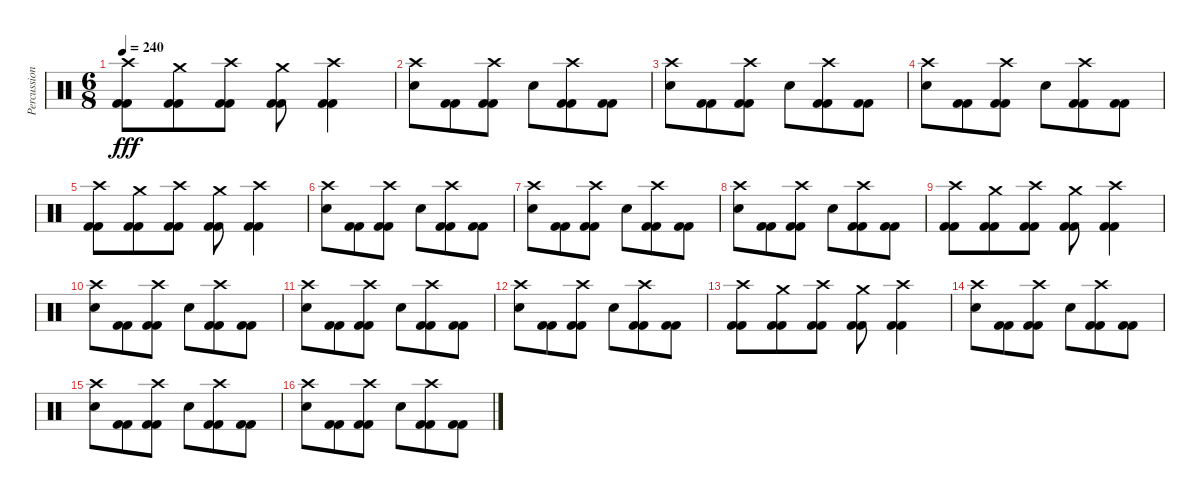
\track ("Percussion" "Percussion") {instrument percussion}
\staff {score}
\articulation defaults
\ts (6 8)
\tempo 240
\clef neutral
\ks c
("Crash high (hit)" "Kick (hit) 2" "Kick (hit) 2").8{dy fff} ("Crash medium (hit)" "Kick (hit) 2" "Kick (hit) 2").8 ("Crash high (hit)" "Kick (hit) 2" "Kick (hit) 2").8 ("Crash medium (hit)" "Kick (hit) 2" "Kick (hit) 2").8 ("Crash high (hit)" "Kick (hit) 2" "Kick (hit) 2").4 |
("Crash high (hit)" "Snare (hit) 2").8 ("Kick (hit) 2" "Kick (hit) 2").8 ("Crash high (hit)" "Kick (hit) 2" "Kick (hit) 2").8 "Snare (hit) 2".8 ("Crash high (hit)" "Kick (hit) 2" "Kick (hit) 2").8 ("Kick (hit) 2" "Kick (hit) 2").8 |
("Crash high (hit)" "Snare (hit) 2").8 ("Kick (hit) 2" "Kick (hit) 2").8 ("Crash high (hit)" "Kick (hit) 2" "Kick (hit) 2").8 "Snare (hit) 2".8 ("Crash high (hit)" "Kick (hit) 2" "Kick (hit) 2").8 ("Kick (hit) 2" "Kick (hit) 2").8 |
("Crash high (hit)" "Snare (hit) 2").8 ("Kick (hit) 2" "Kick (hit) 2").8 ("Crash high (hit)" "Kick (hit) 2" "Kick (hit) 2").8 "Snare (hit) 2".8 ("Crash high (hit)" "Kick (hit) 2" "Kick (hit) 2").8 ("Kick (hit) 2" "Kick (hit) 2").8 |
("Crash high (hit)" "Kick (hit) 2" "Kick (hit) 2").8 ("Crash medium (hit)" "Kick (hit) 2" "Kick (hit) 2").8 ("Crash high (hit)" "Kick (hit) 2" "Kick (hit) 2").8 ("Crash medium (hit)" "Kick (hit) 2" "Kick (hit) 2").8 ("Crash high (hit)" "Kick (hit) 2" "Kick (hit) 2").4 |
("Crash high (hit)" "Snare (hit) 2").8 ("Kick (hit) 2" "Kick (hit) 2").8 ("Crash high (hit)" "Kick (hit) 2" "Kick (hit) 2").8 "Snare (hit) 2".8 ("Crash high (hit)" "Kick (hit) 2" "Kick (hit) 2").8 ("Kick (hit) 2" "Kick (hit) 2").8 |
("Crash high (hit)" "Snare (hit) 2").8 ("Kick (hit) 2" "Kick (hit) 2").8 ("Crash high (hit)" "Kick (hit) 2" "Kick (hit) 2").8 "Snare (hit) 2".8 ("Crash high (hit)" "Kick (hit) 2" "Kick (hit) 2").8 ("Kick (hit) 2" "Kick (hit) 2").8 |
("Crash high (hit)" "Snare (hit) 2").8 ("Kick (hit) 2" "Kick (hit) 2").8 ("Crash high (hit)" "Kick (hit) 2" "Kick (hit) 2").8 "Snare (hit) 2".8 ("Crash high (hit)" "Kick (hit) 2" "Kick (hit) 2").8 ("Kick (hit) 2" "Kick (hit) 2").8 |
("Crash high (hit)" "Kick (hit) 2" "Kick (hit) 2").8 ("Crash medium (hit)" "Kick (hit) 2" "Kick (hit) 2").8 ("Crash high (hit)" "Kick (hit) 2" "Kick (hit) 2").8 ("Crash medium (hit)" "Kick (hit) 2" "Kick (hit) 2").8 ("Crash high (hit)" "Kick (hit) 2" "Kick (hit) 2").4 |
("Crash high (hit)" "Snare (hit) 2").8 ("Kick (hit) 2" "Kick (hit) 2").8 ("Crash high (hit)" "Kick (hit) 2" "Kick (hit) 2").8 "Snare (hit) 2".8 ("Crash high (hit)" "Kick (hit) 2" "Kick (hit) 2").8 ("Kick (hit) 2" "Kick (hit) 2").8 |
("Crash high (hit)" "Snare (hit) 2").8 ("Kick (hit) 2" "Kick (hit) 2").8 ("Crash high (hit)" "Kick (hit) 2" "Kick (hit) 2").8 "Snare (hit) 2".8 ("Crash high (hit)" "Kick (hit) 2" "Kick (hit) 2").8 ("Kick (hit) 2" "Kick (hit) 2").8 |
("Crash high (hit)" "Snare (hit) 2").8 ("Kick (hit) 2" "Kick (hit) 2").8 ("Crash high (hit)" "Kick (hit) 2" "Kick (hit) 2").8 "Snare (hit) 2".8 ("Crash high (hit)" "Kick (hit) 2" "Kick (hit) 2").8 ("Kick (hit) 2" "Kick (hit) 2").8 |
("Crash high (hit)" "Kick (hit) 2" "Kick (hit) 2").8 ("Crash medium (hit)" "Kick (hit) 2" "Kick (hit) 2").8 ("Crash high (hit)" "Kick (hit) 2" "Kick (hit) 2").8 ("Crash medium (hit)" "Kick (hit) 2" "Kick (hit) 2").8 ("Crash high (hit)" "Kick (hit) 2" "Kick (hit) 2").4 |
("Crash high (hit)" "Snare (hit) 2").8 ("Kick (hit) 2" "Kick (hit) 2").8 ("Crash high (hit)" "Kick (hit) 2" "Kick (hit) 2").8 "Snare (hit) 2".8 ("Crash high (hit)" "Kick (hit) 2" "Kick (hit) 2").8 ("Kick (hit) 2" "Kick (hit) 2").8 |
("Crash high (hit)" "Snare (hit) 2").8 ("Kick (hit) 2" "Kick (hit) 2").8 ("Crash high (hit)" "Kick (hit) 2" "Kick (hit) 2").8 "Snare (hit) 2".8 ("Crash high (hit)" "Kick (hit) 2" "Kick (hit) 2").8 ("Kick (hit) 2" "Kick (hit) 2").8 |
("Crash high (hit)" "Snare (hit) 2").8 ("Kick (hit) 2" "Kick (hit) 2").8 ("Crash high (hit)" "Kick (hit) 2" "Kick (hit) 2").8 "Snare (hit) 2".8 ("Crash high (hit)" "Kick (hit) 2" "Kick (hit) 2").8 ("Kick (hit) 2" "Kick (hit) 2").8
